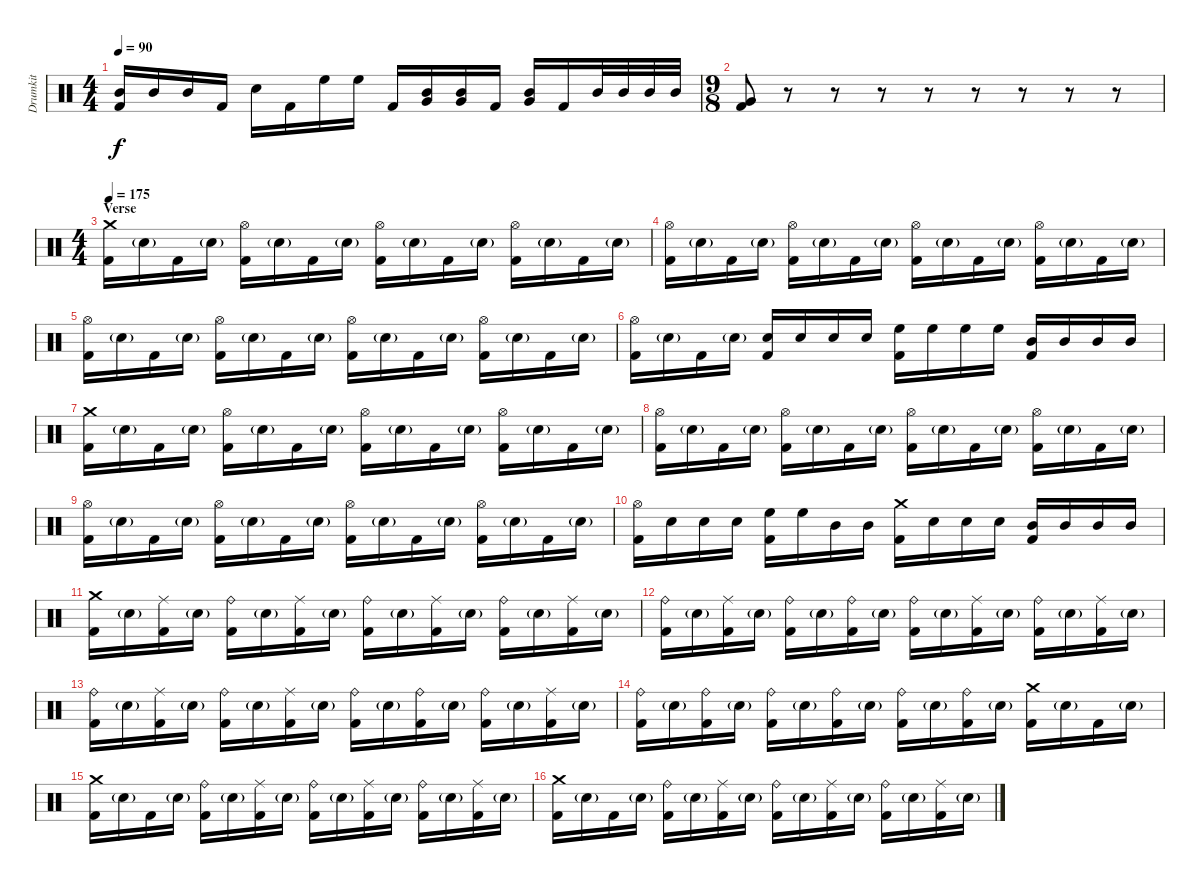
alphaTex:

\track ("Drumkit" "Drumkit") {instrument percussion}
\staff {score}
\articulation defaults
\ts (4 4)
\tempo 90
\clef neutral
\ks c
("Mid Tom (hit)" "Kick (hit) 2").16{dy f} "Mid Tom (hit)".16 "Mid Tom (hit)".16 "Kick (hit) 2".16 "Snare (hit) 2".16 "Kick (hit) 2".16 "High Floor Tom (hit)".16 "High Floor Tom (hit)".16 "Kick (hit) 2".16 ("Mid Tom (hit)" "Very Low Tom (hit)").16 ("Mid Tom (hit)" "Very Low Tom (hit)").16 "Kick (hit) 2".16 ("Mid Tom (hit)" "Very Low Tom (hit)").16 "Kick (hit) 2".16 "Mid Tom (hit)".32 "Mid Tom (hit)".32 "Mid Tom (hit)".32 "Mid Tom (hit)".32 |
\ts (9 8)
("Very Low Tom (hit)" "Kick (hit) 2").8 r.8 r.8 r.8 r.8 r.8 r.8 r.8 r.8 |
\ts (4 4)
\section ("" "Verse")
\tempo 175
("Crash medium (hit)" "Kick (hit) 2").16 "Snare (hit) 2"{g}.16 "Kick (hit) 2".16 "Snare (hit) 2"{g}.16 ("Hi-Hat (open)" "Kick (hit) 2").16 "Snare (hit) 2"{g}.16 "Kick (hit) 2".16 "Snare (hit) 2"{g}.16 ("Hi-Hat (open)" "Kick (hit) 2").16 "Snare (hit) 2"{g}.16 "Kick (hit) 2".16 "Snare (hit) 2"{g}.16 ("Hi-Hat (open)" "Kick (hit) 2").16 "Snare (hit) 2"{g}.16 "Kick (hit) 2".16 "Snare (hit) 2"{g}.16 |
("Hi-Hat (open)" "Kick (hit) 2").16 "Snare (hit) 2"{g}.16 "Kick (hit) 2".16 "Snare (hit) 2"{g}.16 ("Hi-Hat (open)" "Kick (hit) 2").16 "Snare (hit) 2"{g}.16 "Kick (hit) 2".16 "Snare (hit) 2"{g}.16 ("Hi-Hat (open)" "Kick (hit) 2").16 "Snare (hit) 2"{g}.16 "Kick (hit) 2".16 "Snare (hit) 2"{g}.16 ("Hi-Hat (open)" "Kick (hit) 2").16 "Snare (hit) 2"{g}.16 "Kick (hit) 2".16 "Snare (hit) 2"{g}.16 |
("Hi-Hat (open)" "Kick (hit) 2").16 "Snare (hit) 2"{g}.16 "Kick (hit) 2".16 "Snare (hit) 2"{g}.16 ("Hi-Hat (open)" "Kick (hit) 2").16 "Snare (hit) 2"{g}.16 "Kick (hit) 2".16 "Snare (hit) 2"{g}.16 ("Hi-Hat (open)" "Kick (hit) 2").16 "Snare (hit) 2"{g}.16 "Kick (hit) 2".16 "Snare (hit) 2"{g}.16 ("Hi-Hat (open)" "Kick (hit) 2").16 "Snare (hit) 2"{g}.16 "Kick (hit) 2".16 "Snare (hit) 2"{g}.16 |
("Hi-Hat (open)" "Kick (hit) 2").16 "Snare (hit) 2"{g}.16 "Kick (hit) 2".16 "Snare (hit) 2"{g}.16 ("Snare (hit) 2" "Kick (hit) 2").16 "Snare (hit) 2".16 "Snare (hit) 2".16 "Snare (hit) 2".16 ("High Floor Tom (hit)" "Kick (hit) 2").16 "High Floor Tom (hit)".16 "High Floor Tom (hit)".16 "High Floor Tom (hit)".16 ("Mid Tom (hit)" "Kick (hit) 2").16 "Mid Tom (hit)".16 "Mid Tom (hit)".16 "Mid Tom (hit)".16 |
("Crash medium (hit)" "Kick (hit) 2").16 "Snare (hit) 2"{g}.16 "Kick (hit) 2".16 "Snare (hit) 2"{g}.16 ("Hi-Hat (open)" "Kick (hit) 2").16 "Snare (hit) 2"{g}.16 "Kick (hit) 2".16 "Snare (hit) 2"{g}.16 ("Hi-Hat (open)" "Kick (hit) 2").16 "Snare (hit) 2"{g}.16 "Kick (hit) 2".16 "Snare (hit) 2"{g}.16 ("Hi-Hat (open)" "Kick (hit) 2").16 "Snare (hit) 2"{g}.16 "Kick (hit) 2".16 "Snare (hit) 2"{g}.16 |
("Hi-Hat (open)" "Kick (hit) 2").16 "Snare (hit) 2"{g}.16 "Kick (hit) 2".16 "Snare (hit) 2"{g}.16 ("Hi-Hat (open)" "Kick (hit) 2").16 "Snare (hit) 2"{g}.16 "Kick (hit) 2".16 "Snare (hit) 2"{g}.16 ("Hi-Hat (open)" "Kick (hit) 2").16 "Snare (hit) 2"{g}.16 "Kick (hit) 2".16 "Snare (hit) 2"{g}.16 ("Hi-Hat (open)" "Kick (hit) 2").16 "Snare (hit) 2"{g}.16 "Kick (hit) 2".16 "Snare (hit) 2"{g}.16 |
("Hi-Hat (open)" "Kick (hit) 2").16 "Snare (hit) 2"{g}.16 "Kick (hit) 2".16 "Snare (hit) 2"{g}.16 ("Hi-Hat (open)" "Kick (hit) 2").16 "Snare (hit) 2"{g}.16 "Kick (hit) 2".16 "Snare (hit) 2"{g}.16 ("Hi-Hat (open)" "Kick (hit) 2").16 "Snare (hit) 2"{g}.16 "Kick (hit) 2".16 "Snare (hit) 2"{g}.16 ("Hi-Hat (open)" "Kick (hit) 2").16 "Snare (hit) 2"{g}.16 "Kick (hit) 2".16 "Snare (hit) 2"{g}.16 |
("Hi-Hat (open)" "Kick (hit) 2").16 "Snare (hit) 2".16 "Snare (hit) 2".16 "Snare (hit) 2".16 ("High Floor Tom (hit)" "Kick (hit) 2").16 "High Floor Tom (hit)".16 "Mid Tom (hit)".16 "Mid Tom (hit)".16 ("Crash medium (hit)" "Kick (hit) 2").16 "Snare (hit) 2".16 "Snare (hit) 2".16 "Snare (hit) 2".16 ("Mid Tom (hit)" "Kick (hit) 2").16 "Mid Tom (hit)".16 "Mid Tom (hit)".16 "Mid Tom (hit)".16 |
("Crash medium (hit)" "Kick (hit) 2").16 "Snare (hit) 2"{g}.16 ("Ride (middle)" "Kick (hit) 2").16 "Snare (hit) 2"{g}.16 ("Ride (bell)" "Kick (hit) 2").16 "Snare (hit) 2"{g}.16 ("Ride (middle)" "Kick (hit) 2").16 "Snare (hit) 2"{g}.16 ("Ride (bell)" "Kick (hit) 2").16 "Snare (hit) 2"{g}.16 ("Ride (middle)" "Kick (hit) 2").16 "Snare (hit) 2"{g}.16 ("Ride (bell)" "Kick (hit) 2").16 "Snare (hit) 2"{g}.16 ("Ride (middle)" "Kick (hit) 2").16 "Snare (hit) 2"{g}.16 |
("Ride (bell)" "Kick (hit) 2").16 "Snare (hit) 2"{g}.16 ("Ride (middle)" "Kick (hit) 2").16 "Snare (hit) 2"{g}.16 ("Ride (bell)" "Kick (hit) 2").16 "Snare (hit) 2"{g}.16 ("Ride (bell)" "Kick (hit) 2").16 "Snare (hit) 2"{g}.16 ("Ride (bell)" "Kick (hit) 2").16 "Snare (hit) 2"{g}.16 ("Ride (middle)" "Kick (hit) 2").16 "Snare (hit) 2"{g}.16 ("Ride (bell)" "Kick (hit) 2").16 "Snare (hit) 2"{g}.16 ("Ride (middle)" "Kick (hit) 2").16 "Snare (hit) 2"{g}.16 |
("Ride (bell)" "Kick (hit) 2").16 "Snare (hit) 2"{g}.16 ("Ride (middle)" "Kick (hit) 2").16 "Snare (hit) 2"{g}.16 ("Ride (bell)" "Kick (hit) 2").16 "Snare (hit) 2"{g}.16 ("Ride (middle)" "Kick (hit) 2").16 "Snare (hit) 2"{g}.16 ("Ride (bell)" "Kick (hit) 2").16 "Snare (hit) 2"{g}.16 ("Ride (bell)" "Kick (hit) 2").16 "Snare (hit) 2"{g}.16 ("Ride (bell)" "Kick (hit) 2").16 "Snare (hit) 2"{g}.16 ("Ride (middle)" "Kick (hit) 2").16 "Snare (hit) 2"{g}.16 |
("Ride (bell)" "Kick (hit) 2").16 "Snare (hit) 2"{g}.16 ("Ride (bell)" "Kick (hit) 2").16 "Snare (hit) 2"{g}.16 ("Ride (bell)" "Kick (hit) 2").16 "Snare (hit) 2"{g}.16 ("Ride (bell)" "Kick (hit) 2").16 "Snare (hit) 2"{g}.16 ("Ride (bell)" "Kick (hit) 2").16 "Snare (hit) 2"{g}.16 ("Ride (bell)" "Kick (hit) 2").16 "Snare (hit) 2"{g}.16 ("Crash medium (hit)" "Kick (hit) 2").16 "Snare (hit) 2"{g}.16 "Kick (hit) 2".16 "Snare (hit) 2"{g}.16 |
("Crash medium (hit)" "Kick (hit) 2").16 "Snare (hit) 2"{g}.16 "Kick (hit) 2".16 "Snare (hit) 2"{g}.16 ("Ride (bell)" "Kick (hit) 2").16 "Snare (hit) 2"{g}.16 ("Ride (middle)" "Kick (hit) 2").16 "Snare (hit) 2"{g}.16 ("Ride (bell)" "Kick (hit) 2").16 "Snare (hit) 2"{g}.16 ("Ride (middle)" "Kick (hit) 2").16 "Snare (hit) 2"{g}.16 ("Ride (bell)" "Kick (hit) 2").16 "Snare (hit) 2"{g}.16 ("Ride (middle)" "Kick (hit) 2").16 "Snare (hit) 2"{g}.16 |
("Crash medium (hit)" "Kick (hit) 2").16 "Snare (hit) 2"{g}.16 "Kick (hit) 2".16 "Snare (hit) 2"{g}.16 ("Ride (bell)" "Kick (hit) 2").16 "Snare (hit) 2"{g}.16 ("Ride (middle)" "Kick (hit) 2").16 "Snare (hit) 2"{g}.16 ("Ride (bell)" "Kick (hit) 2").16 "Snare (hit) 2"{g}.16 ("Ride (middle)" "Kick (hit) 2").16 "Snare (hit) 2"{g}.16 ("Ride (bell)" "Kick (hit) 2").16 "Snare (hit) 2"{g}.16 ("Ride (middle)" "Kick (hit) 2").16 "Snare (hit) 2"{g}.16
